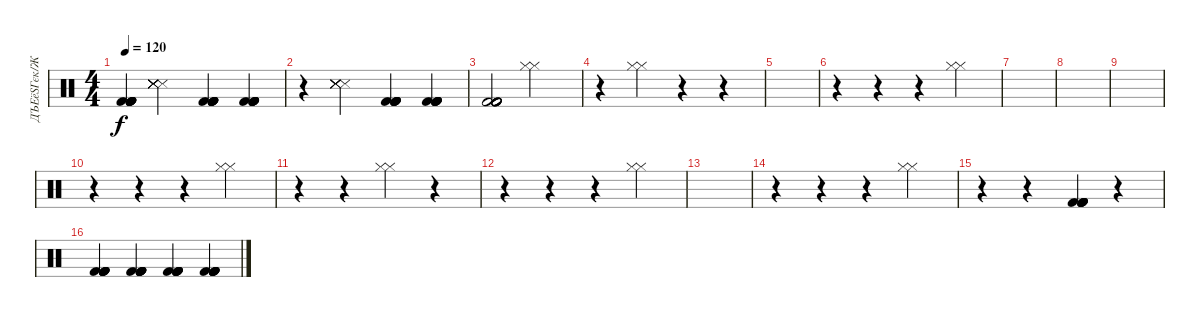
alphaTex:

\track ("ДЪЕёЅГєк/ЖК" "ДЪЕёЅГєк/Ж") {instrument percussion}
\staff {score}
\articulation defaults
\ts (4 4)
\tempo 120
\clef neutral
\ks c
("Kick (hit) 2" "Kick (hit) 2" "Kick (hit) 2" "Kick (hit) 2" "Kick (hit) 2" "Kick (hit) 2").4{dy f} ("Metronome (hit)" "Metronome (hit)" "Metronome (hit)" "Metronome (hit)" "Metronome (hit)" "Metronome (hit)").4 ("Kick (hit) 2" "Kick (hit) 2" "Kick (hit) 2" "Kick (hit) 2" "Kick (hit) 2" "Kick (hit) 2").4 ("Kick (hit) 2" "Kick (hit) 2" "Kick (hit) 2" "Kick (hit) 2" "Kick (hit) 2" "Kick (hit) 2").4 |
r.4 ("Metronome (hit)" "Metronome (hit)" "Metronome (hit)" "Metronome (hit)" "Metronome (hit)" "Metronome (hit)").4 ("Kick (hit) 2" "Kick (hit) 2" "Kick (hit) 2" "Kick (hit) 2" "Kick (hit) 2" "Kick (hit) 2").4 ("Kick (hit) 2" "Kick (hit) 2" "Kick (hit) 2" "Kick (hit) 2" "Kick (hit) 2" "Kick (hit) 2").4 |
("Kick (hit) 2" "Kick (hit) 2" "Kick (hit) 2" "Kick (hit) 2" "Kick (hit) 2" "Kick (hit) 2").2 ("Hi-Hat (closed)" "Hi-Hat (closed)").2 |
r.4 ("Hi-Hat (closed)" "Hi-Hat (closed)").4 r.4 r.4 |
|
r.4 r.4 r.4 ("Hi-Hat (closed)" "Hi-Hat (closed)").4 |
|
|
|
r.4 r.4 r.4 ("Hi-Hat (closed)" "Hi-Hat (closed)").4 |
r.4 r.4 ("Hi-Hat (closed)" "Hi-Hat (closed)").4 r.4 |
r.4 r.4 r.4 ("Hi-Hat (closed)" "Hi-Hat (closed)").4 |
|
r.4 r.4 r.4 ("Hi-Hat (closed)" "Hi-Hat (closed)").4 |
r.4 r.4 ("Kick (hit) 2" "Kick (hit) 2" "Kick (hit) 2" "Kick (hit) 2" "Kick (hit) 2" "Kick (hit) 2").4 r.4 |
("Kick (hit) 2" "Kick (hit) 2" "Kick (hit) 2" "Kick (hit) 2" "Kick (hit) 2" "Kick (hit) 2").4 ("Kick (hit) 2" "Kick (hit) 2" "Kick (hit) 2" "Kick (hit) 2" "Kick (hit) 2" "Kick (hit) 2").4 ("Kick (hit) 2" "Kick (hit) 2" "Kick (hit) 2" "Kick (hit) 2" "Kick (hit) 2" "Kick (hit) 2").4 ("Kick (hit) 2" "Kick (hit) 2" "Kick (hit) 2" "Kick (hit) 2" "Kick (hit) 2" "Kick (hit) 2").4
